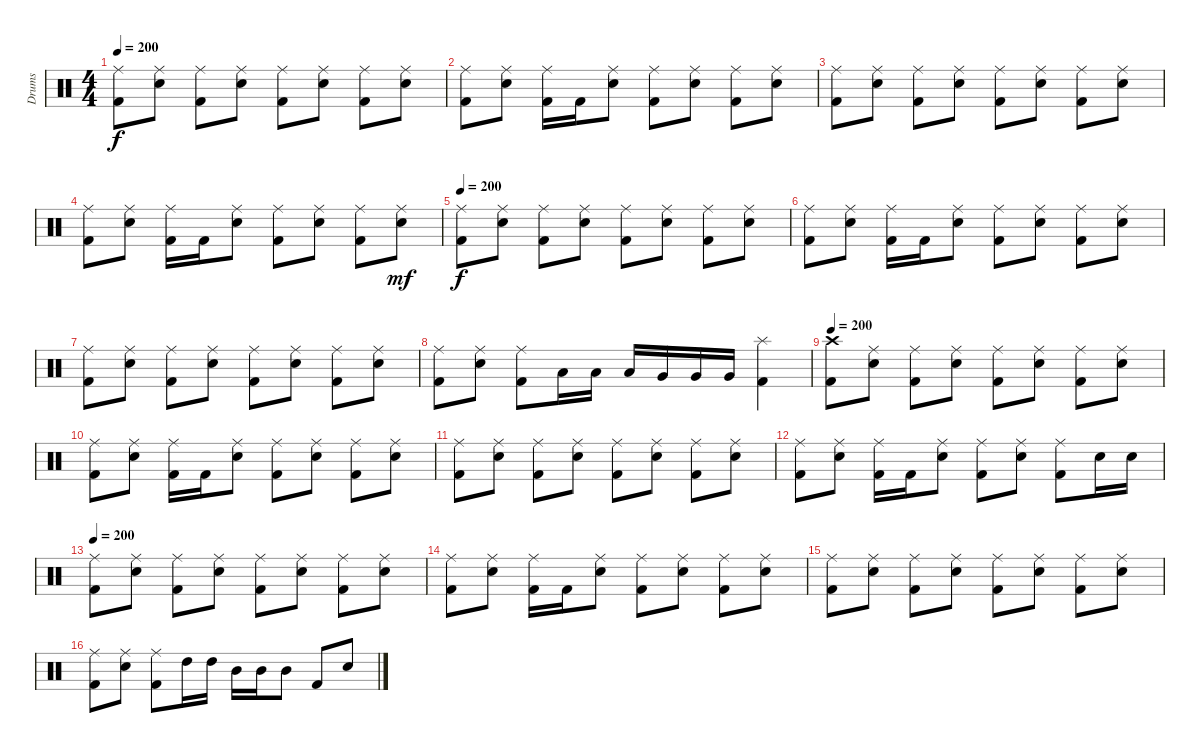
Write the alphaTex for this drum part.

\track ("Drums" "Drums") {instrument percussion}
\staff {score}
\articulation defaults
\ts (4 4)
\tempo 200
\clef neutral
\ks c
("Ride (middle)" "Kick (hit) 2").8{dy f} ("Ride (middle)" "Electric Snare (hit)").8 ("Ride (middle)" "Kick (hit) 2").8 ("Ride (middle)" "Electric Snare (hit)").8 ("Ride (middle)" "Kick (hit) 2").8 ("Ride (middle)" "Electric Snare (hit)").8 ("Ride (middle)" "Kick (hit) 2").8 ("Ride (middle)" "Electric Snare (hit)").8 |
("Ride (middle)" "Kick (hit) 2").8 ("Ride (middle)" "Electric Snare (hit)").8 ("Ride (middle)" "Kick (hit) 2").16 "Kick (hit) 2".16 ("Ride (middle)" "Electric Snare (hit)").8 ("Ride (middle)" "Kick (hit) 2").8 ("Ride (middle)" "Electric Snare (hit)").8 ("Ride (middle)" "Kick (hit) 2").8 ("Ride (middle)" "Electric Snare (hit)").8 |
("Ride (middle)" "Kick (hit) 2").8 ("Ride (middle)" "Electric Snare (hit)").8 ("Ride (middle)" "Kick (hit) 2").8 ("Ride (middle)" "Electric Snare (hit)").8 ("Ride (middle)" "Kick (hit) 2").8 ("Ride (middle)" "Electric Snare (hit)").8 ("Ride (middle)" "Kick (hit) 2").8 ("Ride (middle)" "Electric Snare (hit)").8 |
("Ride (middle)" "Kick (hit) 2").8 ("Ride (middle)" "Electric Snare (hit)").8 ("Ride (middle)" "Kick (hit) 2").16 "Kick (hit) 2".16 ("Ride (middle)" "Electric Snare (hit)").8 ("Ride (middle)" "Kick (hit) 2").8 ("Ride (middle)" "Electric Snare (hit)").8 ("Ride (middle)" "Kick (hit) 2").8 ("Ride (middle)" "Electric Snare (hit)").8{dy mf} |
\tempo 200
("Ride (middle)" "Kick (hit) 2").8{dy f} ("Ride (middle)" "Electric Snare (hit)").8 ("Ride (middle)" "Kick (hit) 2").8 ("Ride (middle)" "Electric Snare (hit)").8 ("Ride (middle)" "Kick (hit) 2").8 ("Ride (middle)" "Electric Snare (hit)").8 ("Ride (middle)" "Kick (hit) 2").8 ("Ride (middle)" "Electric Snare (hit)").8 |
("Ride (middle)" "Kick (hit) 2").8 ("Ride (middle)" "Electric Snare (hit)").8 ("Ride (middle)" "Kick (hit) 2").16 "Kick (hit) 2".16 ("Ride (middle)" "Electric Snare (hit)").8 ("Ride (middle)" "Kick (hit) 2").8 ("Ride (middle)" "Electric Snare (hit)").8 ("Ride (middle)" "Kick (hit) 2").8 ("Ride (middle)" "Electric Snare (hit)").8 |
("Ride (middle)" "Kick (hit) 2").8 ("Ride (middle)" "Electric Snare (hit)").8 ("Ride (middle)" "Kick (hit) 2").8 ("Ride (middle)" "Electric Snare (hit)").8 ("Ride (middle)" "Kick (hit) 2").8 ("Ride (middle)" "Electric Snare (hit)").8 ("Ride (middle)" "Kick (hit) 2").8 ("Ride (middle)" "Electric Snare (hit)").8 |
("Ride (middle)" "Kick (hit) 2").8 ("Ride (middle)" "Electric Snare (hit)").8 ("Ride (middle)" "Kick (hit) 2").8 "Low Tom (hit)".16 "Low Tom (hit)".16 "Low Tom (hit)".16 "Very Low Tom (hit)".16 "Very Low Tom (hit)".16 "Very Low Tom (hit)".16 ("Splash (hit)" "Kick (hit) 2").4 |
\tempo 200
("Crash high (hit)" "Kick (hit) 2").8 ("Ride (middle)" "Electric Snare (hit)").8 ("Ride (middle)" "Kick (hit) 2").8 ("Ride (middle)" "Electric Snare (hit)").8 ("Ride (middle)" "Kick (hit) 2").8 ("Ride (middle)" "Electric Snare (hit)").8 ("Ride (middle)" "Kick (hit) 2").8 ("Ride (middle)" "Electric Snare (hit)").8 |
("Ride (middle)" "Kick (hit) 2").8 ("Ride (middle)" "Electric Snare (hit)").8 ("Ride (middle)" "Kick (hit) 2").16 "Kick (hit) 2".16 ("Ride (middle)" "Electric Snare (hit)").8 ("Ride (middle)" "Kick (hit) 2").8 ("Ride (middle)" "Electric Snare (hit)").8 ("Ride (middle)" "Kick (hit) 2").8 ("Ride (middle)" "Electric Snare (hit)").8 |
("Ride (middle)" "Kick (hit) 2").8 ("Ride (middle)" "Electric Snare (hit)").8 ("Ride (middle)" "Kick (hit) 2").8 ("Ride (middle)" "Electric Snare (hit)").8 ("Ride (middle)" "Kick (hit) 2").8 ("Ride (middle)" "Electric Snare (hit)").8 ("Ride (middle)" "Kick (hit) 2").8 ("Ride (middle)" "Electric Snare (hit)").8 |
("Ride (middle)" "Kick (hit) 2").8 ("Ride (middle)" "Electric Snare (hit)").8 ("Ride (middle)" "Kick (hit) 2").16 "Kick (hit) 2".16 ("Ride (middle)" "Electric Snare (hit)").8 ("Ride (middle)" "Kick (hit) 2").8 ("Ride (middle)" "Electric Snare (hit)").8 ("Ride (middle)" "Kick (hit) 2").8 "Electric Snare (hit)".16 "Electric Snare (hit)".16 |
\tempo 200
("Ride (middle)" "Kick (hit) 2").8 ("Ride (middle)" "Electric Snare (hit)").8 ("Ride (middle)" "Kick (hit) 2").8 ("Ride (middle)" "Electric Snare (hit)").8 ("Ride (middle)" "Kick (hit) 2").8 ("Ride (middle)" "Electric Snare (hit)").8 ("Ride (middle)" "Kick (hit) 2").8 ("Ride (middle)" "Electric Snare (hit)").8 |
("Ride (middle)" "Kick (hit) 2").8 ("Ride (middle)" "Electric Snare (hit)").8 ("Ride (middle)" "Kick (hit) 2").16 "Kick (hit) 2".16 ("Ride (middle)" "Electric Snare (hit)").8 ("Ride (middle)" "Kick (hit) 2").8 ("Ride (middle)" "Electric Snare (hit)").8 ("Ride (middle)" "Kick (hit) 2").8 ("Ride (middle)" "Electric Snare (hit)").8 |
("Ride (middle)" "Kick (hit) 2").8 ("Ride (middle)" "Electric Snare (hit)").8 ("Ride (middle)" "Kick (hit) 2").8 ("Ride (middle)" "Electric Snare (hit)").8 ("Ride (middle)" "Kick (hit) 2").8 ("Ride (middle)" "Electric Snare (hit)").8 ("Ride (middle)" "Kick (hit) 2").8 ("Ride (middle)" "Electric Snare (hit)").8 |
("Ride (middle)" "Kick (hit) 2").8 ("Ride (middle)" "Electric Snare (hit)").8 ("Ride (middle)" "Kick (hit) 2").8 "High Tom (hit)".16 "High Tom (hit)".16 "Mid Tom (hit)".16 "Mid Tom (hit)".16 "Mid Tom (hit)".8 "Kick (hit) 2".8 "Electric Snare (hit)".8
